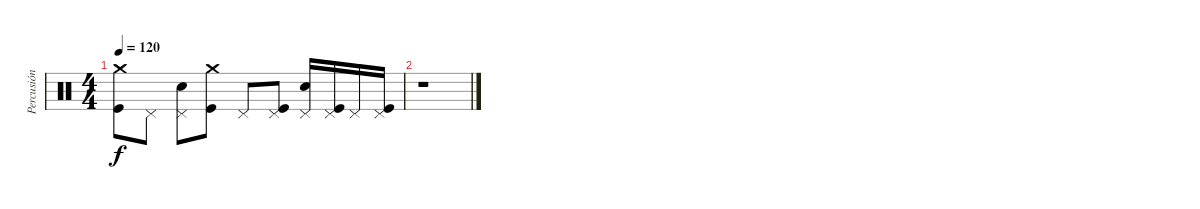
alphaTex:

\track ("Percusión" "Percusión") {instrument percussion}
\staff {score}
\articulation defaults
\ts (4 4)
\tempo 120
\clef neutral
\ks c
("Crash medium (hit)" "Kick (hit)").8{dy f} "Pedal Hi-Hat (hit)".8 ("Pedal Hi-Hat (hit)" "Electric Snare (hit)").8 ("Crash medium (hit)" "Kick (hit)").8 "Pedal Hi-Hat (hit)".8 ("Pedal Hi-Hat (hit)" "Kick (hit)").8 ("Pedal Hi-Hat (hit)" "Electric Snare (hit)").16 ("Pedal Hi-Hat (hit)" "Kick (hit)").16 "Pedal Hi-Hat (hit)".16 ("Pedal Hi-Hat (hit)" "Kick (hit)").16 |
r.1
